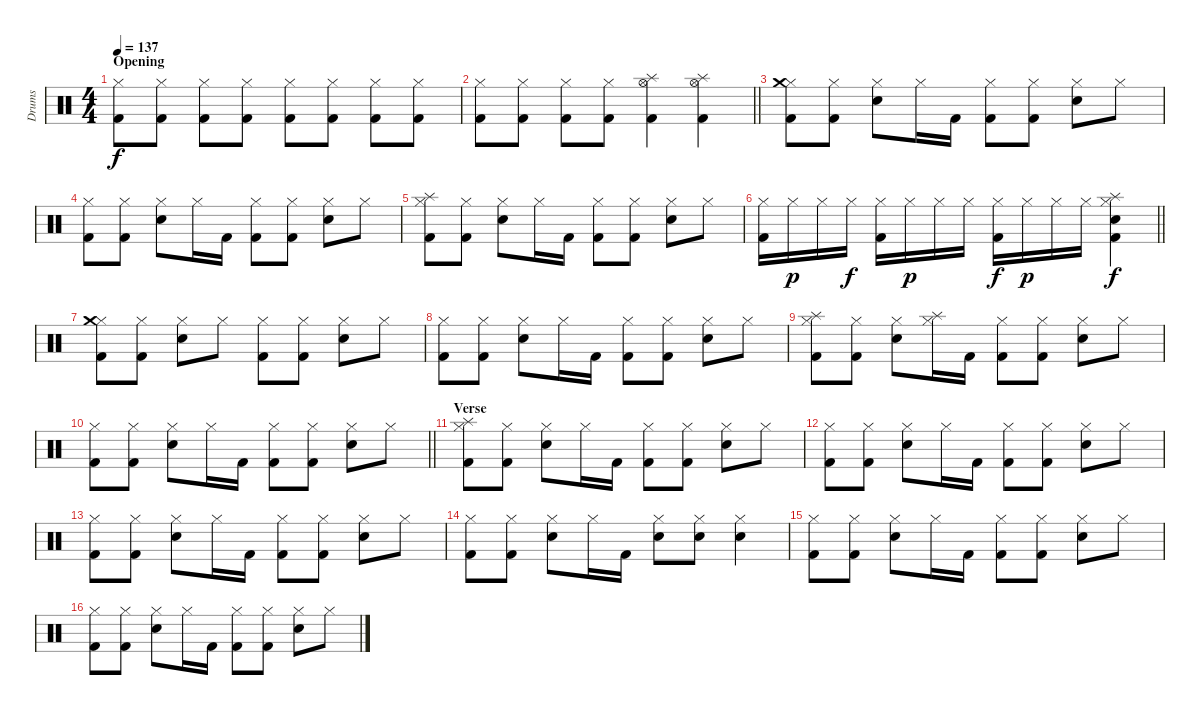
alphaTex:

\track ("Drums" "Drums") {instrument percussion}
\staff {score}
\articulation defaults
\ts (4 4)
\section ("" "Opening")
\tempo 137
\clef neutral
\ks c
("Hi-Hat (closed)" "Kick (hit) 2").8{dy f} ("Hi-Hat (closed)" "Kick (hit) 2").8 ("Hi-Hat (closed)" "Kick (hit) 2").8 ("Hi-Hat (closed)" "Kick (hit) 2").8 ("Hi-Hat (closed)" "Kick (hit) 2").8 ("Hi-Hat (closed)" "Kick (hit) 2").8 ("Hi-Hat (closed)" "Kick (hit) 2").8 ("Hi-Hat (closed)" "Kick (hit) 2").8 |
\barLineRight lightlight
("Hi-Hat (closed)" "Kick (hit) 2").8 ("Hi-Hat (closed)" "Kick (hit) 2").8 ("Hi-Hat (closed)" "Kick (hit) 2").8 ("Hi-Hat (closed)" "Kick (hit) 2").8 ("Hi-Hat (open)" "Splash (hit)" "Kick (hit) 2").4 ("Hi-Hat (open)" "Splash (hit)" "Kick (hit) 2").4 |
("Hi-Hat (closed)" "Crash medium (hit)" "Kick (hit) 2").8 ("Hi-Hat (closed)" "Kick (hit) 2").8 ("Hi-Hat (closed)" "Snare (hit) 2").8 "Hi-Hat (closed)".16 "Kick (hit) 2".16 ("Hi-Hat (closed)" "Kick (hit) 2").8 ("Hi-Hat (closed)" "Kick (hit) 2").8 ("Hi-Hat (closed)" "Snare (hit) 2").8 "Hi-Hat (closed)".8 |
("Hi-Hat (closed)" "Kick (hit) 2").8 ("Hi-Hat (closed)" "Kick (hit) 2").8 ("Hi-Hat (closed)" "Snare (hit) 2").8 "Hi-Hat (closed)".16 "Kick (hit) 2".16 ("Hi-Hat (closed)" "Kick (hit) 2").8 ("Hi-Hat (closed)" "Kick (hit) 2").8 ("Hi-Hat (closed)" "Snare (hit) 2").8 "Hi-Hat (closed)".8 |
("Hi-Hat (closed)" "Splash (hit)" "Kick (hit) 2").8 ("Hi-Hat (closed)" "Kick (hit) 2").8 ("Hi-Hat (closed)" "Snare (hit) 2").8 "Hi-Hat (closed)".16 "Kick (hit) 2".16 ("Hi-Hat (closed)" "Kick (hit) 2").8 ("Hi-Hat (closed)" "Kick (hit) 2").8 ("Hi-Hat (closed)" "Snare (hit) 2").8 "Hi-Hat (closed)".8 |
\barLineRight lightlight
("Hi-Hat (closed)" "Kick (hit) 2").16 "Hi-Hat (closed)".16{dy p} "Hi-Hat (closed)".16 "Hi-Hat (closed)".16{dy f} ("Hi-Hat (closed)" "Kick (hit) 2").16 "Hi-Hat (closed)".16{dy p} "Hi-Hat (closed)".16 "Hi-Hat (closed)".16 ("Hi-Hat (closed)" "Kick (hit) 2").16{dy f} "Hi-Hat (closed)".16{dy p} "Hi-Hat (closed)".16 "Hi-Hat (closed)".16 ("Hi-Hat (closed)" "Snare (hit) 2" "Splash (hit)" "Kick (hit) 2").4{dy f} |
("Hi-Hat (closed)" "Crash medium (hit)" "Kick (hit) 2").8 ("Hi-Hat (closed)" "Kick (hit) 2").8 ("Hi-Hat (closed)" "Snare (hit) 2").8 "Hi-Hat (closed)".8 ("Hi-Hat (closed)" "Kick (hit) 2").8 ("Hi-Hat (closed)" "Kick (hit) 2").8 ("Hi-Hat (closed)" "Snare (hit) 2").8 "Hi-Hat (closed)".8 |
("Hi-Hat (closed)" "Kick (hit) 2").8 ("Hi-Hat (closed)" "Kick (hit) 2").8 ("Hi-Hat (closed)" "Snare (hit) 2").8 "Hi-Hat (closed)".16 "Kick (hit) 2".16 ("Hi-Hat (closed)" "Kick (hit) 2").8 ("Hi-Hat (closed)" "Kick (hit) 2").8 ("Hi-Hat (closed)" "Snare (hit) 2").8 "Hi-Hat (closed)".8 |
("Hi-Hat (closed)" "Splash (hit)" "Kick (hit) 2").8 ("Hi-Hat (closed)" "Kick (hit) 2").8 ("Hi-Hat (closed)" "Snare (hit) 2").8 ("Hi-Hat (closed)" "Splash (hit)").16 "Kick (hit) 2".16 ("Hi-Hat (closed)" "Kick (hit) 2").8 ("Hi-Hat (closed)" "Kick (hit) 2").8 ("Hi-Hat (closed)" "Snare (hit) 2").8 "Hi-Hat (closed)".8 |
\barLineRight lightlight
("Hi-Hat (closed)" "Kick (hit) 2").8 ("Hi-Hat (closed)" "Kick (hit) 2").8 ("Hi-Hat (closed)" "Snare (hit) 2").8 "Hi-Hat (closed)".16 "Kick (hit) 2".16 ("Hi-Hat (closed)" "Kick (hit) 2").8 ("Hi-Hat (closed)" "Kick (hit) 2").8 ("Hi-Hat (closed)" "Snare (hit) 2").8 "Hi-Hat (closed)".8 |
\section ("" "Verse")
("Hi-Hat (closed)" "Splash (hit)" "Kick (hit) 2").8 ("Hi-Hat (closed)" "Kick (hit) 2").8 ("Hi-Hat (closed)" "Snare (hit) 2").8 "Hi-Hat (closed)".16 "Kick (hit) 2".16 ("Hi-Hat (closed)" "Kick (hit) 2").8 ("Hi-Hat (closed)" "Kick (hit) 2").8 ("Hi-Hat (closed)" "Snare (hit) 2").8 "Hi-Hat (closed)".8 |
("Hi-Hat (closed)" "Kick (hit) 2").8 ("Hi-Hat (closed)" "Kick (hit) 2").8 ("Hi-Hat (closed)" "Snare (hit) 2").8 "Hi-Hat (closed)".16 "Kick (hit) 2".16 ("Hi-Hat (closed)" "Kick (hit) 2").8 ("Hi-Hat (closed)" "Kick (hit) 2").8 ("Hi-Hat (closed)" "Snare (hit) 2").8 "Hi-Hat (closed)".8 |
("Hi-Hat (closed)" "Kick (hit) 2").8 ("Hi-Hat (closed)" "Kick (hit) 2").8 ("Hi-Hat (closed)" "Snare (hit) 2").8 "Hi-Hat (closed)".16 "Kick (hit) 2".16 ("Hi-Hat (closed)" "Kick (hit) 2").8 ("Hi-Hat (closed)" "Kick (hit) 2").8 ("Hi-Hat (closed)" "Snare (hit) 2").8 "Hi-Hat (closed)".8 |
("Hi-Hat (closed)" "Kick (hit) 2").8 ("Hi-Hat (closed)" "Kick (hit) 2").8 ("Hi-Hat (closed)" "Snare (hit) 2").8 "Hi-Hat (closed)".16 "Kick (hit) 2".16 ("Hi-Hat (closed)" "Snare (hit) 2").8 ("Hi-Hat (closed)" "Snare (hit) 2").8 ("Hi-Hat (closed)" "Snare (hit) 2").4 |
("Hi-Hat (closed)" "Kick (hit) 2").8 ("Hi-Hat (closed)" "Kick (hit) 2").8 ("Hi-Hat (closed)" "Snare (hit) 2").8 "Hi-Hat (closed)".16 "Kick (hit) 2".16 ("Hi-Hat (closed)" "Kick (hit) 2").8 ("Hi-Hat (closed)" "Kick (hit) 2").8 ("Hi-Hat (closed)" "Snare (hit) 2").8 "Hi-Hat (closed)".8 |
("Hi-Hat (closed)" "Kick (hit) 2").8 ("Hi-Hat (closed)" "Kick (hit) 2").8 ("Hi-Hat (closed)" "Snare (hit) 2").8 "Hi-Hat (closed)".16 "Kick (hit) 2".16 ("Hi-Hat (closed)" "Kick (hit) 2").8 ("Hi-Hat (closed)" "Kick (hit) 2").8 ("Hi-Hat (closed)" "Snare (hit) 2").8 "Hi-Hat (closed)".8
